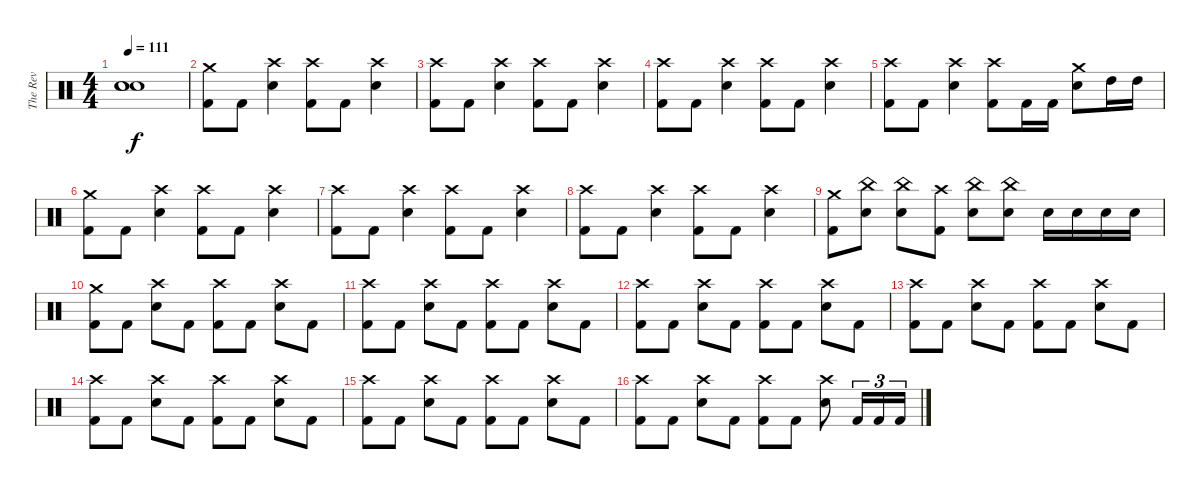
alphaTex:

\track ("The Rev" "The Rev") {instrument percussion}
\staff {score}
\articulation defaults
\ts (4 4)
\tempo 111
\clef neutral
\ks c
("Snare (hit)"{t} "Snare (hit)"{t} "Snare (hit)"{t}).1{dy f} |
("Crash medium (hit)" "Kick (hit) 2").8{volume 13} "Kick (hit) 2".8 ("Crash high (hit)" "Snare (hit) 2").4 ("Crash high (hit)" "Kick (hit) 2").8 "Kick (hit) 2".8 ("Crash high (hit)" "Snare (hit) 2").4 |
("Crash high (hit)" "Kick (hit) 2").8 "Kick (hit) 2".8 ("Crash high (hit)" "Snare (hit) 2").4 ("Crash high (hit)" "Kick (hit) 2").8 "Kick (hit) 2".8 ("Crash high (hit)" "Snare (hit) 2").4 |
("Crash high (hit)" "Kick (hit) 2").8 "Kick (hit) 2".8 ("Crash high (hit)" "Snare (hit) 2").4 ("Crash high (hit)" "Kick (hit) 2").8 "Kick (hit) 2".8 ("Crash high (hit)" "Snare (hit) 2").4 |
("Crash high (hit)" "Kick (hit) 2").8 "Kick (hit) 2".8 ("Crash high (hit)" "Snare (hit) 2").4 ("Crash high (hit)" "Kick (hit) 2").8 "Kick (hit) 2".16 "Kick (hit) 2".16 ("Crash medium (hit)" "Snare (hit) 2").8 "High Tom (hit)".16 "High Tom (hit)".16 |
("Crash medium (hit)" "Kick (hit) 2").8 "Kick (hit) 2".8 ("Crash high (hit)" "Snare (hit) 2").4 ("Crash high (hit)" "Kick (hit) 2").8 "Kick (hit) 2".8 ("Crash high (hit)" "Snare (hit) 2").4 |
("Crash high (hit)" "Kick (hit) 2").8 "Kick (hit) 2".8 ("Crash high (hit)" "Snare (hit) 2").4 ("Crash high (hit)" "Kick (hit) 2").8 "Kick (hit) 2".8 ("Crash high (hit)" "Snare (hit) 2").4 |
("Crash high (hit)" "Kick (hit) 2").8 "Kick (hit) 2".8 ("Crash high (hit)" "Snare (hit) 2").4 ("Crash high (hit)" "Kick (hit) 2").8 "Kick (hit) 2".8 ("Crash high (hit)" "Snare (hit) 2").4 |
("Crash medium (hit)" "Kick (hit) 2").8 ("China (hit)" "Snare (hit) 2").8 ("China (hit)" "Snare (hit) 2").8 ("Crash high (hit)" "Kick (hit) 2").8 ("China (hit)" "Snare (hit) 2").8 ("China (hit)" "Snare (hit) 2").8 "Snare (hit) 2".16 "Snare (hit) 2".16 "Snare (hit) 2".16 "Snare (hit) 2".16 |
("Crash medium (hit)" "Kick (hit) 2").8 "Kick (hit) 2".8 ("Crash high (hit)" "Snare (hit) 2").8 "Kick (hit) 2".8 ("Crash high (hit)" "Kick (hit) 2").8 "Kick (hit) 2".8 ("Crash high (hit)" "Snare (hit) 2").8 "Kick (hit) 2".8 |
("Crash high (hit)" "Kick (hit) 2").8 "Kick (hit) 2".8 ("Crash high (hit)" "Snare (hit) 2").8 "Kick (hit) 2".8 ("Crash high (hit)" "Kick (hit) 2").8 "Kick (hit) 2".8 ("Crash high (hit)" "Snare (hit) 2").8 "Kick (hit) 2".8 |
("Crash high (hit)" "Kick (hit) 2").8 "Kick (hit) 2".8 ("Crash high (hit)" "Snare (hit) 2").8 "Kick (hit) 2".8 ("Crash high (hit)" "Kick (hit) 2").8 "Kick (hit) 2".8 ("Crash high (hit)" "Snare (hit) 2").8 "Kick (hit) 2".8 |
("Crash high (hit)" "Kick (hit) 2").8 "Kick (hit) 2".8 ("Crash high (hit)" "Snare (hit) 2").8 "Kick (hit) 2".8 ("Crash high (hit)" "Kick (hit) 2").8 "Kick (hit) 2".8 ("Crash high (hit)" "Snare (hit) 2").8 "Kick (hit) 2".8 |
("Crash high (hit)" "Kick (hit) 2").8 "Kick (hit) 2".8 ("Crash high (hit)" "Snare (hit) 2").8 "Kick (hit) 2".8 ("Crash high (hit)" "Kick (hit) 2").8 "Kick (hit) 2".8 ("Crash high (hit)" "Snare (hit) 2").8 "Kick (hit) 2".8 |
("Crash high (hit)" "Kick (hit) 2").8 "Kick (hit) 2".8 ("Crash high (hit)" "Snare (hit) 2").8 "Kick (hit) 2".8 ("Crash high (hit)" "Kick (hit) 2").8 "Kick (hit) 2".8 ("Crash high (hit)" "Snare (hit) 2").8 "Kick (hit) 2".8 |
("Crash high (hit)" "Kick (hit) 2").8 "Kick (hit) 2".8 ("Crash high (hit)" "Snare (hit) 2").8 "Kick (hit) 2".8 ("Crash high (hit)" "Kick (hit) 2").8 "Kick (hit) 2".8 ("Crash high (hit)" "Snare (hit) 2").8 "Kick (hit) 2".16{tu (3 2)} "Kick (hit) 2".16{tu (3 2)} "Kick (hit) 2".16{tu (3 2)}
